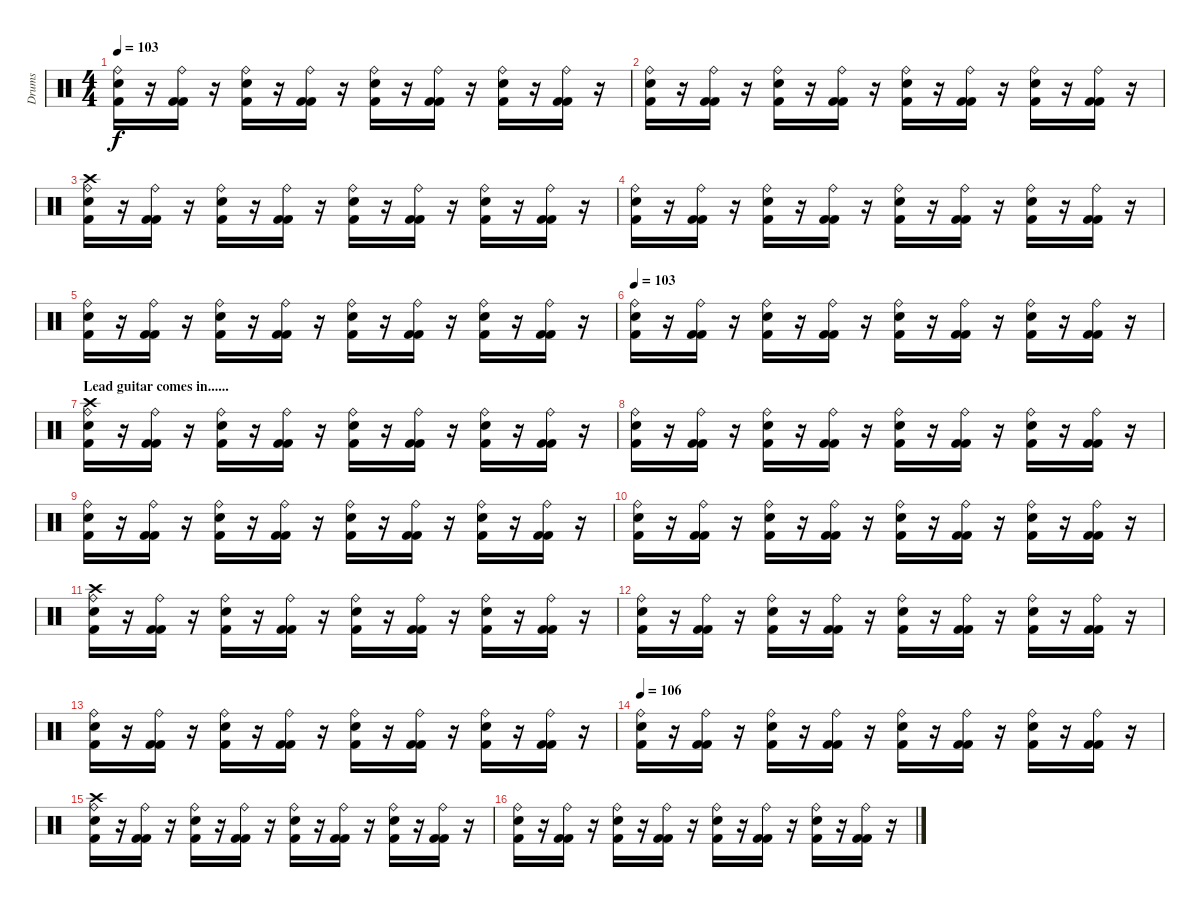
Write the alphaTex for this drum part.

\track ("Drums" "Drums") {instrument percussion}
\staff {score}
\articulation defaults
\ts (4 4)
\tempo 103
\clef neutral
\ks c
("Ride (bell)" "Snare (hit) 2" "Kick (hit) 2").16{dy f} r.16 ("Ride (bell)" "Kick (hit) 2" "Kick (hit) 2").16 r.16 ("Ride (bell)" "Snare (hit) 2" "Kick (hit) 2").16 r.16 ("Ride (bell)" "Kick (hit) 2" "Kick (hit) 2").16 r.16 ("Ride (bell)" "Snare (hit) 2" "Kick (hit) 2").16 r.16 ("Ride (bell)" "Kick (hit) 2" "Kick (hit) 2").16 r.16 ("Ride (bell)" "Snare (hit) 2" "Kick (hit) 2").16 r.16 ("Ride (bell)" "Kick (hit) 2" "Kick (hit) 2").16 r.16 |
("Ride (bell)" "Snare (hit) 2" "Kick (hit) 2").16 r.16 ("Ride (bell)" "Kick (hit) 2" "Kick (hit) 2").16 r.16 ("Ride (bell)" "Snare (hit) 2" "Kick (hit) 2").16 r.16 ("Ride (bell)" "Kick (hit) 2" "Kick (hit) 2").16 r.16 ("Ride (bell)" "Snare (hit) 2" "Kick (hit) 2").16 r.16 ("Ride (bell)" "Kick (hit) 2" "Kick (hit) 2").16 r.16 ("Ride (bell)" "Snare (hit) 2" "Kick (hit) 2").16 r.16 ("Ride (bell)" "Kick (hit) 2" "Kick (hit) 2").16 r.16 |
("Crash high (hit)" "Ride (bell)" "Snare (hit) 2" "Kick (hit) 2").16 r.16 ("Ride (bell)" "Kick (hit) 2" "Kick (hit) 2").16 r.16 ("Ride (bell)" "Snare (hit) 2" "Kick (hit) 2").16 r.16 ("Ride (bell)" "Kick (hit) 2" "Kick (hit) 2").16 r.16 ("Ride (bell)" "Snare (hit) 2" "Kick (hit) 2").16 r.16 ("Ride (bell)" "Kick (hit) 2" "Kick (hit) 2").16 r.16 ("Ride (bell)" "Snare (hit) 2" "Kick (hit) 2").16 r.16 ("Ride (bell)" "Kick (hit) 2" "Kick (hit) 2").16 r.16 |
("Ride (bell)" "Snare (hit) 2" "Kick (hit) 2").16 r.16 ("Ride (bell)" "Kick (hit) 2" "Kick (hit) 2").16 r.16 ("Ride (bell)" "Snare (hit) 2" "Kick (hit) 2").16 r.16 ("Ride (bell)" "Kick (hit) 2" "Kick (hit) 2").16 r.16 ("Ride (bell)" "Snare (hit) 2" "Kick (hit) 2").16 r.16 ("Ride (bell)" "Kick (hit) 2" "Kick (hit) 2").16 r.16 ("Ride (bell)" "Snare (hit) 2" "Kick (hit) 2").16 r.16 ("Ride (bell)" "Kick (hit) 2" "Kick (hit) 2").16 r.16 |
("Ride (bell)" "Snare (hit) 2" "Kick (hit) 2").16 r.16 ("Ride (bell)" "Kick (hit) 2" "Kick (hit) 2").16 r.16 ("Ride (bell)" "Snare (hit) 2" "Kick (hit) 2").16 r.16 ("Ride (bell)" "Kick (hit) 2" "Kick (hit) 2").16 r.16 ("Ride (bell)" "Snare (hit) 2" "Kick (hit) 2").16 r.16 ("Ride (bell)" "Kick (hit) 2" "Kick (hit) 2").16 r.16 ("Ride (bell)" "Snare (hit) 2" "Kick (hit) 2").16 r.16 ("Ride (bell)" "Kick (hit) 2" "Kick (hit) 2").16 r.16 |
\tempo 103
("Ride (bell)" "Snare (hit) 2" "Kick (hit) 2").16 r.16 ("Ride (bell)" "Kick (hit) 2" "Kick (hit) 2").16 r.16 ("Ride (bell)" "Snare (hit) 2" "Kick (hit) 2").16 r.16 ("Ride (bell)" "Kick (hit) 2" "Kick (hit) 2").16 r.16 ("Ride (bell)" "Snare (hit) 2" "Kick (hit) 2").16 r.16 ("Ride (bell)" "Kick (hit) 2" "Kick (hit) 2").16 r.16 ("Ride (bell)" "Snare (hit) 2" "Kick (hit) 2").16 r.16 ("Ride (bell)" "Kick (hit) 2" "Kick (hit) 2").16 r.16 |
\section ("" "Lead guitar comes in......")
("Crash high (hit)" "Ride (bell)" "Snare (hit) 2" "Kick (hit) 2").16 r.16 ("Ride (bell)" "Kick (hit) 2" "Kick (hit) 2").16 r.16 ("Ride (bell)" "Snare (hit) 2" "Kick (hit) 2").16 r.16 ("Ride (bell)" "Kick (hit) 2" "Kick (hit) 2").16 r.16 ("Ride (bell)" "Snare (hit) 2" "Kick (hit) 2").16 r.16 ("Ride (bell)" "Kick (hit) 2" "Kick (hit) 2").16 r.16 ("Ride (bell)" "Snare (hit) 2" "Kick (hit) 2").16 r.16 ("Ride (bell)" "Kick (hit) 2" "Kick (hit) 2").16 r.16 |
("Ride (bell)" "Snare (hit) 2" "Kick (hit) 2").16 r.16 ("Ride (bell)" "Kick (hit) 2" "Kick (hit) 2").16 r.16 ("Ride (bell)" "Snare (hit) 2" "Kick (hit) 2").16 r.16 ("Ride (bell)" "Kick (hit) 2" "Kick (hit) 2").16 r.16 ("Ride (bell)" "Snare (hit) 2" "Kick (hit) 2").16 r.16 ("Ride (bell)" "Kick (hit) 2" "Kick (hit) 2").16 r.16 ("Ride (bell)" "Snare (hit) 2" "Kick (hit) 2").16 r.16 ("Ride (bell)" "Kick (hit) 2" "Kick (hit) 2").16 r.16 |
("Ride (bell)" "Snare (hit) 2" "Kick (hit) 2").16 r.16 ("Ride (bell)" "Kick (hit) 2" "Kick (hit) 2").16 r.16 ("Ride (bell)" "Snare (hit) 2" "Kick (hit) 2").16 r.16 ("Ride (bell)" "Kick (hit) 2" "Kick (hit) 2").16 r.16 ("Ride (bell)" "Snare (hit) 2" "Kick (hit) 2").16 r.16 ("Ride (bell)" "Kick (hit) 2" "Kick (hit) 2").16 r.16 ("Ride (bell)" "Snare (hit) 2" "Kick (hit) 2").16 r.16 ("Ride (bell)" "Kick (hit) 2" "Kick (hit) 2").16 r.16 |
("Ride (bell)" "Snare (hit) 2" "Kick (hit) 2").16 r.16 ("Ride (bell)" "Kick (hit) 2" "Kick (hit) 2").16 r.16 ("Ride (bell)" "Snare (hit) 2" "Kick (hit) 2").16 r.16 ("Ride (bell)" "Kick (hit) 2" "Kick (hit) 2").16 r.16 ("Ride (bell)" "Snare (hit) 2" "Kick (hit) 2").16 r.16 ("Ride (bell)" "Kick (hit) 2" "Kick (hit) 2").16 r.16 ("Ride (bell)" "Snare (hit) 2" "Kick (hit) 2").16 r.16 ("Ride (bell)" "Kick (hit) 2" "Kick (hit) 2").16 r.16 |
("Crash high (hit)" "Ride (bell)" "Snare (hit) 2" "Kick (hit) 2").16 r.16 ("Ride (bell)" "Kick (hit) 2" "Kick (hit) 2").16 r.16 ("Ride (bell)" "Snare (hit) 2" "Kick (hit) 2").16 r.16 ("Ride (bell)" "Kick (hit) 2" "Kick (hit) 2").16 r.16 ("Ride (bell)" "Snare (hit) 2" "Kick (hit) 2").16 r.16 ("Ride (bell)" "Kick (hit) 2" "Kick (hit) 2").16 r.16 ("Ride (bell)" "Snare (hit) 2" "Kick (hit) 2").16 r.16 ("Ride (bell)" "Kick (hit) 2" "Kick (hit) 2").16 r.16 |
("Ride (bell)" "Snare (hit) 2" "Kick (hit) 2").16 r.16 ("Ride (bell)" "Kick (hit) 2" "Kick (hit) 2").16 r.16 ("Ride (bell)" "Snare (hit) 2" "Kick (hit) 2").16 r.16 ("Ride (bell)" "Kick (hit) 2" "Kick (hit) 2").16 r.16 ("Ride (bell)" "Snare (hit) 2" "Kick (hit) 2").16 r.16 ("Ride (bell)" "Kick (hit) 2" "Kick (hit) 2").16 r.16 ("Ride (bell)" "Snare (hit) 2" "Kick (hit) 2").16 r.16 ("Ride (bell)" "Kick (hit) 2" "Kick (hit) 2").16 r.16 |
("Ride (bell)" "Snare (hit) 2" "Kick (hit) 2").16 r.16 ("Ride (bell)" "Kick (hit) 2" "Kick (hit) 2").16 r.16 ("Ride (bell)" "Snare (hit) 2" "Kick (hit) 2").16 r.16 ("Ride (bell)" "Kick (hit) 2" "Kick (hit) 2").16 r.16 ("Ride (bell)" "Snare (hit) 2" "Kick (hit) 2").16 r.16 ("Ride (bell)" "Kick (hit) 2" "Kick (hit) 2").16 r.16 ("Ride (bell)" "Snare (hit) 2" "Kick (hit) 2").16 r.16 ("Ride (bell)" "Kick (hit) 2" "Kick (hit) 2").16 r.16 |
\tempo 106
("Ride (bell)" "Snare (hit) 2" "Kick (hit) 2").16 r.16 ("Ride (bell)" "Kick (hit) 2" "Kick (hit) 2").16 r.16 ("Ride (bell)" "Snare (hit) 2" "Kick (hit) 2").16 r.16 ("Ride (bell)" "Kick (hit) 2" "Kick (hit) 2").16 r.16 ("Ride (bell)" "Snare (hit) 2" "Kick (hit) 2").16 r.16 ("Ride (bell)" "Kick (hit) 2" "Kick (hit) 2").16 r.16 ("Ride (bell)" "Snare (hit) 2" "Kick (hit) 2").16 r.16 ("Ride (bell)" "Kick (hit) 2" "Kick (hit) 2").16 r.16 |
("Crash high (hit)" "Ride (bell)" "Snare (hit) 2" "Kick (hit) 2").16 r.16 ("Ride (bell)" "Kick (hit) 2" "Kick (hit) 2").16 r.16 ("Ride (bell)" "Snare (hit) 2" "Kick (hit) 2").16 r.16 ("Ride (bell)" "Kick (hit) 2" "Kick (hit) 2").16 r.16 ("Ride (bell)" "Snare (hit) 2" "Kick (hit) 2").16 r.16 ("Ride (bell)" "Kick (hit) 2" "Kick (hit) 2").16 r.16 ("Ride (bell)" "Snare (hit) 2" "Kick (hit) 2").16 r.16 ("Ride (bell)" "Kick (hit) 2" "Kick (hit) 2").16 r.16 |
("Ride (bell)" "Snare (hit) 2" "Kick (hit) 2").16 r.16 ("Ride (bell)" "Kick (hit) 2" "Kick (hit) 2").16 r.16 ("Ride (bell)" "Snare (hit) 2" "Kick (hit) 2").16 r.16 ("Ride (bell)" "Kick (hit) 2" "Kick (hit) 2").16 r.16 ("Ride (bell)" "Snare (hit) 2" "Kick (hit) 2").16 r.16 ("Ride (bell)" "Kick (hit) 2" "Kick (hit) 2").16 r.16 ("Ride (bell)" "Snare (hit) 2" "Kick (hit) 2").16 r.16 ("Ride (bell)" "Kick (hit) 2" "Kick (hit) 2").16 r.16
